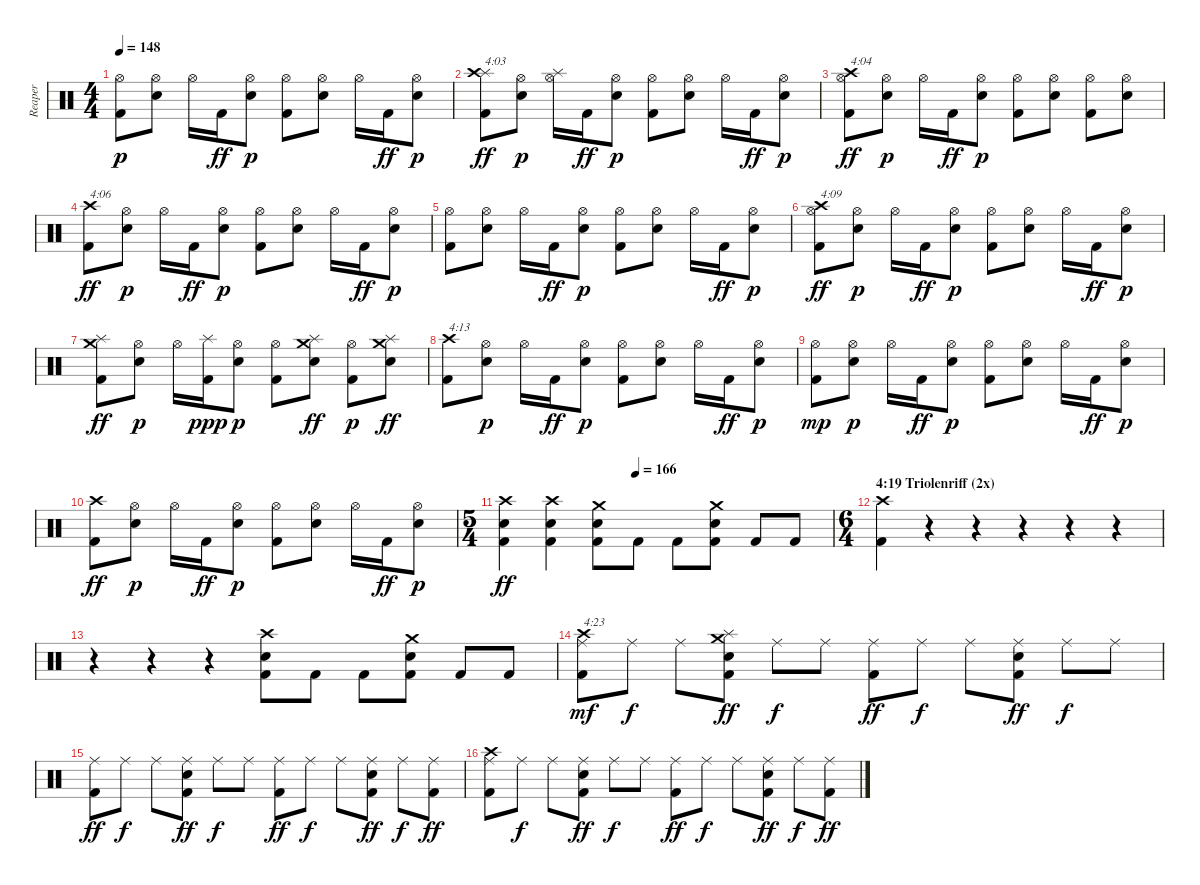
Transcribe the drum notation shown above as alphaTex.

\track ("Reaper" "Reaper") {instrument percussion}
\staff {score}
\articulation defaults
\ts (4 4)
\tempo 148
\clef neutral
\ks c
("Kick (hit) 2" "Hi-Hat (open)").8{dy p} ("Electric Snare (hit)" "Hi-Hat (open)").8 "Hi-Hat (open)".16 "Kick (hit) 2".16{dy ff} ("Electric Snare (hit)" "Hi-Hat (open)").8{dy p} ("Kick (hit) 2" "Hi-Hat (open)").8 ("Electric Snare (hit)" "Hi-Hat (open)").8 "Hi-Hat (open)".16 "Kick (hit) 2".16{dy ff} ("Electric Snare (hit)" "Hi-Hat (open)").8{dy p} |
("Kick (hit) 2" "Splash (hit)" "Crash high (hit)").8{txt "4:03" dy ff} ("Electric Snare (hit)" "Hi-Hat (open)").8{dy p} ("Splash (hit)" "Hi-Hat (open)").16 "Kick (hit) 2".16{dy ff} ("Electric Snare (hit)" "Hi-Hat (open)").8{dy p} ("Kick (hit) 2" "Hi-Hat (open)").8 ("Electric Snare (hit)" "Hi-Hat (open)").8 "Hi-Hat (open)".16 "Kick (hit) 2".16{dy ff} ("Electric Snare (hit)" "Hi-Hat (open)").8{dy p} |
("Kick (hit) 2" "Hi-Hat (open)" "Crash high (hit)").8{txt "4:04" dy ff} ("Electric Snare (hit)" "Hi-Hat (open)").8{dy p} "Hi-Hat (open)".16 "Kick (hit) 2".16{dy ff} ("Electric Snare (hit)" "Hi-Hat (open)").8{dy p} ("Kick (hit) 2" "Hi-Hat (open)").8 ("Electric Snare (hit)" "Hi-Hat (open)").8 ("Kick (hit) 2" "Hi-Hat (open)").8 ("Electric Snare (hit)" "Hi-Hat (open)").8 |
("Kick (hit) 2" "Crash high (hit)").8{txt "4:06" dy ff} ("Electric Snare (hit)" "Hi-Hat (open)").8{dy p} "Hi-Hat (open)".16 "Kick (hit) 2".16{dy ff} ("Electric Snare (hit)" "Hi-Hat (open)").8{dy p} ("Kick (hit) 2" "Hi-Hat (open)").8 ("Electric Snare (hit)" "Hi-Hat (open)").8 "Hi-Hat (open)".16 "Kick (hit) 2".16{dy ff} ("Electric Snare (hit)" "Hi-Hat (open)").8{dy p} |
("Kick (hit) 2" "Hi-Hat (open)").8 ("Electric Snare (hit)" "Hi-Hat (open)").8 "Hi-Hat (open)".16 "Kick (hit) 2".16{dy ff} ("Electric Snare (hit)" "Hi-Hat (open)").8{dy p} ("Kick (hit) 2" "Hi-Hat (open)").8 ("Electric Snare (hit)" "Hi-Hat (open)").8 "Hi-Hat (open)".16 "Kick (hit) 2".16{dy ff} ("Electric Snare (hit)" "Hi-Hat (open)").8{dy p} |
("Kick (hit) 2" "Hi-Hat (open)" "Crash high (hit)").8{txt "4:09" dy ff} ("Electric Snare (hit)" "Hi-Hat (open)").8{dy p} "Hi-Hat (open)".16 "Kick (hit) 2".16{dy ff} ("Electric Snare (hit)" "Hi-Hat (open)").8{dy p} ("Kick (hit) 2" "Hi-Hat (open)").8 ("Electric Snare (hit)" "Hi-Hat (open)").8 "Hi-Hat (open)".16 "Kick (hit) 2".16{dy ff} ("Electric Snare (hit)" "Hi-Hat (open)").8{dy p} |
("Kick (hit) 2" "Splash (hit)" "Crash medium (hit)").8{dy ff} ("Electric Snare (hit)" "Hi-Hat (open)").8{dy p} "Hi-Hat (open)".16 ("Kick (hit) 2" "Splash (hit)").16{dy ppp} ("Electric Snare (hit)" "Hi-Hat (open)").8{dy p} ("Kick (hit) 2" "Hi-Hat (open)").8 ("Splash (hit)" "Electric Snare (hit)" "Crash medium (hit)").8{dy ff} ("Kick (hit) 2" "Hi-Hat (open)").8{dy p} ("Splash (hit)" "Electric Snare (hit)" "Crash medium (hit)").8{dy ff} |
("Kick (hit) 2" "Crash high (hit)").8{txt "4:13"} ("Electric Snare (hit)" "Hi-Hat (open)").8{dy p} "Hi-Hat (open)".16 "Kick (hit) 2".16{dy ff} ("Electric Snare (hit)" "Hi-Hat (open)").8{dy p} ("Kick (hit) 2" "Hi-Hat (open)").8 ("Electric Snare (hit)" "Hi-Hat (open)").8 "Hi-Hat (open)".16 "Kick (hit) 2".16{dy ff} ("Electric Snare (hit)" "Hi-Hat (open)").8{dy p} |
("Kick (hit) 2" "Hi-Hat (open)").8{dy mp} ("Electric Snare (hit)" "Hi-Hat (open)").8{dy p} "Hi-Hat (open)".16 "Kick (hit) 2".16{dy ff} ("Electric Snare (hit)" "Hi-Hat (open)").8{dy p} ("Kick (hit) 2" "Hi-Hat (open)").8 ("Electric Snare (hit)" "Hi-Hat (open)").8 "Hi-Hat (open)".16 "Kick (hit) 2".16{dy ff} ("Electric Snare (hit)" "Hi-Hat (open)").8{dy p} |
("Kick (hit) 2" "Crash high (hit)").8{dy ff} ("Electric Snare (hit)" "Hi-Hat (open)").8{dy p} "Hi-Hat (open)".16 "Kick (hit) 2".16{dy ff} ("Electric Snare (hit)" "Hi-Hat (open)").8{dy p} ("Kick (hit) 2" "Hi-Hat (open)").8 ("Electric Snare (hit)" "Hi-Hat (open)").8 "Hi-Hat (open)".16 "Kick (hit) 2".16{dy ff} ("Electric Snare (hit)" "Hi-Hat (open)").8{dy p} |
\ts (5 4)
\tempo (166 0.4)
("Kick (hit) 2" "Electric Snare (hit)" "Crash high (hit)").4{dy ff} ("Kick (hit) 2" "Electric Snare (hit)" "Crash high (hit)").4 ("Kick (hit) 2" "Electric Snare (hit)" "Crash medium (hit)").8 "Kick (hit) 2".8 "Kick (hit) 2".8 ("Kick (hit) 2" "Electric Snare (hit)" "Crash medium (hit)").8 "Kick (hit) 2".8 "Kick (hit) 2".8 |
\ts (6 4)
\section ("" "4:19 Triolenriff (2x)")
("Kick (hit) 2" "Crash high (hit)").4 r.4 r.4 r.4 r.4 r.4 |
r.4 r.4 r.4 ("Kick (hit) 2" "Electric Snare (hit)" "Crash high (hit)").8 "Kick (hit) 2".8 "Kick (hit) 2".8 ("Kick (hit) 2" "Electric Snare (hit)" "Crash medium (hit)").8 "Kick (hit) 2".8 "Kick (hit) 2".8 |
("Kick (hit) 2" "Ride (middle)" "Crash high (hit)").8{txt "4:23" dy mf} "Ride (middle)".8{dy f} "Ride (middle)".8 ("Kick (hit) 2" "Electric Snare (hit)" "Crash medium (hit)" "Splash (hit)").8{dy ff} "Ride (middle)".8{dy f} "Ride (middle)".8 ("Kick (hit) 2" "Ride (middle)").8{dy ff} "Ride (middle)".8{dy f} "Ride (middle)".8 ("Kick (hit) 2" "Electric Snare (hit)" "Ride (middle)").8{dy ff} "Ride (middle)".8{dy f} "Ride (middle)".8 |
("Kick (hit) 2" "Ride (middle)").8{dy ff} "Ride (middle)".8{dy f} "Ride (middle)".8 ("Kick (hit) 2" "Electric Snare (hit)" "Ride (middle)").8{dy ff} "Ride (middle)".8{dy f} "Ride (middle)".8 ("Kick (hit) 2" "Ride (middle)").8{dy ff} "Ride (middle)".8{dy f} "Ride (middle)".8 ("Kick (hit) 2" "Electric Snare (hit)" "Ride (middle)").8{dy ff} "Ride (middle)".8{dy f} ("Kick (hit) 2" "Ride (middle)").8{dy ff} |
("Kick (hit) 2" "Ride (middle)" "Crash high (hit)").8 "Ride (middle)".8{dy f} "Ride (middle)".8 ("Kick (hit) 2" "Electric Snare (hit)" "Ride (middle)").8{dy ff} "Ride (middle)".8{dy f} "Ride (middle)".8 ("Kick (hit) 2" "Ride (middle)").8{dy ff} "Ride (middle)".8{dy f} "Ride (middle)".8 ("Kick (hit) 2" "Electric Snare (hit)" "Ride (middle)").8{dy ff} "Ride (middle)".8{dy f} ("Kick (hit) 2" "Ride (middle)").8{dy ff}
